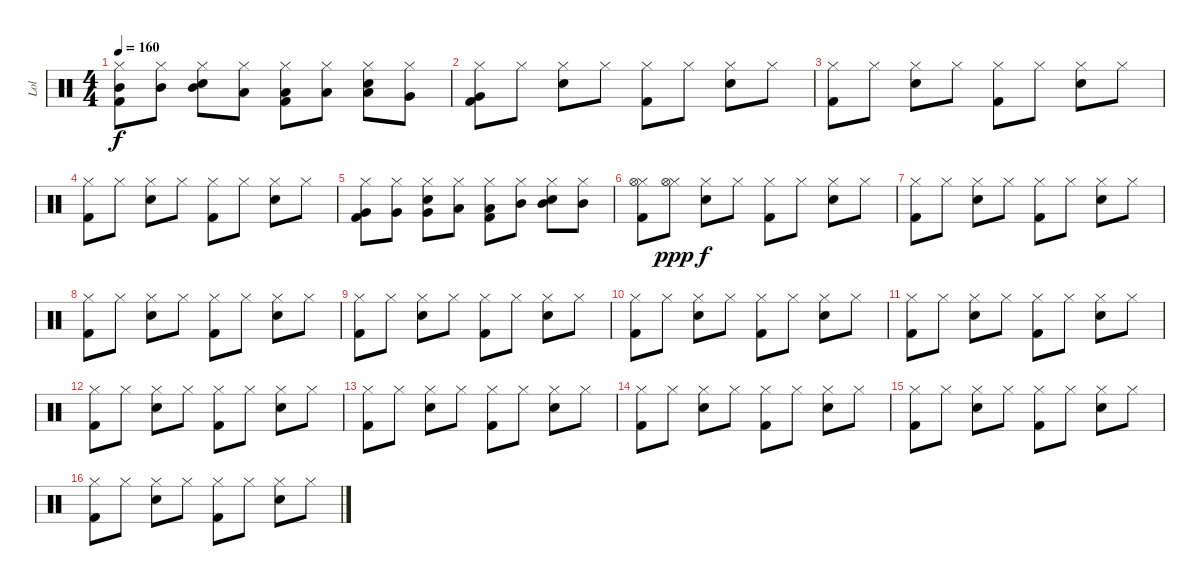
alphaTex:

\track ("Lol" "Lol") {instrument percussion}
\staff {score}
\articulation defaults
\ts (4 4)
\tempo 160
\clef neutral
\ks c
("Kick (hit) 2" "Mid Tom (hit)" "Hi-Hat (closed)").8{dy f} ("Mid Tom (hit)" "Hi-Hat (closed)").8 ("Snare (hit) 2" "Mid Tom (hit)" "Hi-Hat (closed)").8 ("Low Tom (hit)" "Hi-Hat (closed)").8 ("Kick (hit) 2" "Low Tom (hit)" "Hi-Hat (closed)").8 ("Low Tom (hit)" "Hi-Hat (closed)").8 ("Snare (hit) 2" "Low Tom (hit)" "Hi-Hat (closed)").8 ("Very Low Tom (hit)" "Hi-Hat (closed)").8 |
("Kick (hit) 2" "Very Low Tom (hit)" "Hi-Hat (closed)").8 "Hi-Hat (closed)".8 ("Snare (hit) 2" "Hi-Hat (closed)").8 "Hi-Hat (closed)".8 ("Kick (hit) 2" "Hi-Hat (closed)").8 "Hi-Hat (closed)".8 ("Snare (hit) 2" "Hi-Hat (closed)").8 "Hi-Hat (closed)".8 |
("Kick (hit) 2" "Hi-Hat (closed)").8 "Hi-Hat (closed)".8 ("Snare (hit) 2" "Hi-Hat (closed)").8 "Hi-Hat (closed)".8 ("Kick (hit) 2" "Hi-Hat (closed)").8 "Hi-Hat (closed)".8 ("Snare (hit) 2" "Hi-Hat (closed)").8 "Hi-Hat (closed)".8 |
("Kick (hit) 2" "Hi-Hat (closed)").8 "Hi-Hat (closed)".8 ("Snare (hit) 2" "Hi-Hat (closed)").8 "Hi-Hat (closed)".8 ("Kick (hit) 2" "Hi-Hat (closed)").8 "Hi-Hat (closed)".8 ("Snare (hit) 2" "Hi-Hat (closed)").8 "Hi-Hat (closed)".8 |
("Kick (hit) 2" "Very Low Tom (hit)" "Hi-Hat (closed)").8 ("Very Low Tom (hit)" "Hi-Hat (closed)").8 ("Snare (hit) 2" "Very Low Tom (hit)" "Hi-Hat (closed)").8 ("Low Tom (hit)" "Hi-Hat (closed)").8 ("Kick (hit) 2" "Low Tom (hit)" "Hi-Hat (closed)").8 ("Mid Tom (hit)" "Hi-Hat (closed)").8 ("Snare (hit) 2" "Mid Tom (hit)" "Hi-Hat (closed)").8 ("Mid Tom (hit)" "Hi-Hat (closed)").8 |
("Kick (hit) 2" "Hi-Hat (closed)" "Hi-Hat (open)").8 ("Hi-Hat (closed)" "Hi-Hat (open)").8{dy ppp} ("Snare (hit) 2" "Hi-Hat (closed)").8{dy f} "Hi-Hat (closed)".8 ("Kick (hit) 2" "Hi-Hat (closed)").8 "Hi-Hat (closed)".8 ("Snare (hit) 2" "Hi-Hat (closed)").8 "Hi-Hat (closed)".8 |
("Kick (hit) 2" "Hi-Hat (closed)").8 "Hi-Hat (closed)".8 ("Snare (hit) 2" "Hi-Hat (closed)").8 "Hi-Hat (closed)".8 ("Kick (hit) 2" "Hi-Hat (closed)").8 "Hi-Hat (closed)".8 ("Snare (hit) 2" "Hi-Hat (closed)").8 "Hi-Hat (closed)".8 |
("Kick (hit) 2" "Hi-Hat (closed)").8 "Hi-Hat (closed)".8 ("Snare (hit) 2" "Hi-Hat (closed)").8 "Hi-Hat (closed)".8 ("Kick (hit) 2" "Hi-Hat (closed)").8 "Hi-Hat (closed)".8 ("Snare (hit) 2" "Hi-Hat (closed)").8 "Hi-Hat (closed)".8 |
("Kick (hit) 2" "Hi-Hat (closed)").8 "Hi-Hat (closed)".8 ("Snare (hit) 2" "Hi-Hat (closed)").8 "Hi-Hat (closed)".8 ("Kick (hit) 2" "Hi-Hat (closed)").8 "Hi-Hat (closed)".8 ("Snare (hit) 2" "Hi-Hat (closed)").8 "Hi-Hat (closed)".8 |
("Kick (hit) 2" "Hi-Hat (closed)").8 "Hi-Hat (closed)".8 ("Snare (hit) 2" "Hi-Hat (closed)").8 "Hi-Hat (closed)".8 ("Kick (hit) 2" "Hi-Hat (closed)").8 "Hi-Hat (closed)".8 ("Snare (hit) 2" "Hi-Hat (closed)").8 "Hi-Hat (closed)".8 |
("Kick (hit) 2" "Hi-Hat (closed)").8 "Hi-Hat (closed)".8 ("Snare (hit) 2" "Hi-Hat (closed)").8 "Hi-Hat (closed)".8 ("Kick (hit) 2" "Hi-Hat (closed)").8 "Hi-Hat (closed)".8 ("Snare (hit) 2" "Hi-Hat (closed)").8 "Hi-Hat (closed)".8 |
("Kick (hit) 2" "Hi-Hat (closed)").8 "Hi-Hat (closed)".8 ("Snare (hit) 2" "Hi-Hat (closed)").8 "Hi-Hat (closed)".8 ("Kick (hit) 2" "Hi-Hat (closed)").8 "Hi-Hat (closed)".8 ("Snare (hit) 2" "Hi-Hat (closed)").8 "Hi-Hat (closed)".8 |
("Kick (hit) 2" "Hi-Hat (closed)").8 "Hi-Hat (closed)".8 ("Snare (hit) 2" "Hi-Hat (closed)").8 "Hi-Hat (closed)".8 ("Kick (hit) 2" "Hi-Hat (closed)").8 "Hi-Hat (closed)".8 ("Snare (hit) 2" "Hi-Hat (closed)").8 "Hi-Hat (closed)".8 |
("Kick (hit) 2" "Hi-Hat (closed)").8 "Hi-Hat (closed)".8 ("Snare (hit) 2" "Hi-Hat (closed)").8 "Hi-Hat (closed)".8 ("Kick (hit) 2" "Hi-Hat (closed)").8 "Hi-Hat (closed)".8 ("Snare (hit) 2" "Hi-Hat (closed)").8 "Hi-Hat (closed)".8 |
("Kick (hit) 2" "Hi-Hat (closed)").8 "Hi-Hat (closed)".8 ("Snare (hit) 2" "Hi-Hat (closed)").8 "Hi-Hat (closed)".8 ("Kick (hit) 2" "Hi-Hat (closed)").8 "Hi-Hat (closed)".8 ("Snare (hit) 2" "Hi-Hat (closed)").8 "Hi-Hat (closed)".8 |
("Kick (hit) 2" "Hi-Hat (closed)").8 "Hi-Hat (closed)".8 ("Snare (hit) 2" "Hi-Hat (closed)").8 "Hi-Hat (closed)".8 ("Kick (hit) 2" "Hi-Hat (closed)").8 "Hi-Hat (closed)".8 ("Snare (hit) 2" "Hi-Hat (closed)").8 "Hi-Hat (closed)".8
